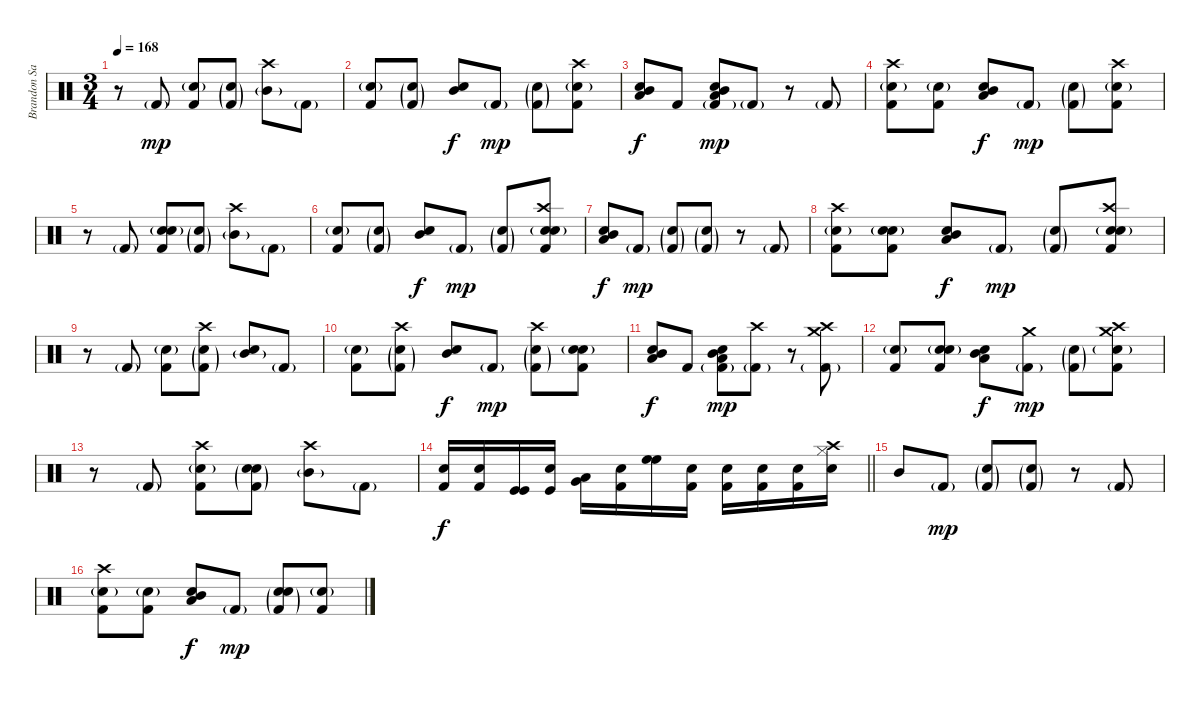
\track ("Brandon Saller" "Brandon Sa") {instrument percussion}
\staff {score}
\articulation defaults
\ts (3 4)
\tempo 168
\clef neutral
\ks c
r.8{dy mp} "Kick (hit) 2"{g}.8 ("Snare (hit)"{g} "Kick (hit) 2").8 ("Snare (hit)"{g} "Kick (hit) 2"{g}).8 ("Crash high (hit)" "Mid Tom (hit)"{g}).8 "Kick (hit) 2"{g}.8 |
("Snare (hit)"{g} "Kick (hit) 2").8 ("Snare (hit)"{g} "Kick (hit) 2"{g}).8 ("Snare (hit) 2" "Mid Tom (hit)").8{dy f} "Kick (hit) 2"{g}.8{dy mp} ("Snare (hit)"{g} "Kick (hit) 2"{g}).8 ("Crash high (hit)" "Snare (hit)"{g} "Kick (hit) 2").8 |
("Snare (hit) 2" "Low Tom (hit)" "Mid Tom (hit)").8{dy f} "Kick (hit) 2".8 ("Snare (hit) 2" "Low Tom (hit)" "Mid Tom (hit)" "Kick (hit) 2"{g}).8{dy mp} "Kick (hit) 2"{g}.8 r.8 "Kick (hit) 2"{g}.8 |
("Crash high (hit)" "Snare (hit)"{g} "Kick (hit) 2").8 ("Snare (hit)"{g} "Kick (hit) 2").8 ("Snare (hit) 2" "Low Tom (hit)" "Mid Tom (hit)").8{dy f} "Kick (hit) 2"{g}.8{dy mp} ("Snare (hit)"{g} "Kick (hit) 2"{g}).8 ("Crash high (hit)" "Snare (hit)"{g} "Kick (hit) 2").8 |
r.8 "Kick (hit) 2"{g}.8 ("Electric Snare (hit)" "Snare (hit)"{g} "Kick (hit) 2").8 ("Snare (hit)"{g} "Kick (hit) 2"{g}).8 ("Crash high (hit)" "Mid Tom (hit)"{g}).8 "Kick (hit) 2"{g}.8 |
("Snare (hit)"{g} "Kick (hit) 2").8 ("Snare (hit)"{g} "Kick (hit) 2"{g}).8 ("Snare (hit) 2" "Mid Tom (hit)").8{dy f} "Kick (hit) 2"{g}.8{dy mp} ("Snare (hit)"{g} "Kick (hit) 2"{g}).8 ("Crash high (hit)" "Electric Snare (hit)" "Snare (hit)"{g} "Kick (hit) 2").8 |
("Snare (hit) 2" "Low Tom (hit)" "Mid Tom (hit)").8{dy f} "Kick (hit) 2"{g}.8{dy mp} ("Snare (hit)"{g} "Kick (hit) 2"{g}).8 ("Snare (hit)"{g} "Kick (hit) 2"{g}).8 r.8 "Kick (hit) 2"{g}.8 |
("Crash high (hit)" "Snare (hit)"{g} "Kick (hit) 2").8 ("Electric Snare (hit)" "Snare (hit)"{g} "Kick (hit) 2").8 ("Snare (hit) 2" "Low Tom (hit)" "Mid Tom (hit)").8{dy f} "Kick (hit) 2"{g}.8{dy mp} ("Snare (hit)"{g} "Kick (hit) 2"{g}).8 ("Crash high (hit)" "Electric Snare (hit)" "Snare (hit)"{g} "Kick (hit) 2").8 |
r.8 "Kick (hit) 2"{g}.8 ("Snare (hit)"{g} "Kick (hit) 2").8 ("Crash high (hit)" "Snare (hit)"{g} "Kick (hit) 2"{g}).8 ("Electric Snare (hit)" "Mid Tom (hit)"{g}).8 "Kick (hit) 2"{g}.8 |
("Snare (hit)"{g} "Kick (hit) 2").8 ("Crash high (hit)" "Snare (hit)"{g} "Kick (hit) 2"{g}).8 ("Snare (hit) 2" "Mid Tom (hit)").8{dy f} "Kick (hit) 2"{g}.8{dy mp} ("Crash high (hit)" "Snare (hit)"{g} "Kick (hit) 2"{g}).8 ("Electric Snare (hit)" "Snare (hit)"{g} "Kick (hit) 2").8 |
("Snare (hit) 2" "Low Tom (hit)" "Mid Tom (hit)").8{dy f} "Kick (hit) 2".8 ("Snare (hit) 2" "Low Tom (hit)" "Mid Tom (hit)" "Kick (hit) 2"{g}).8{dy mp} ("Crash high (hit)" "Kick (hit) 2"{g}).8 r.8 ("Crash high (hit)" "Crash medium (hit)" "Kick (hit) 2"{g}).8 |
("Snare (hit)"{g} "Kick (hit) 2").8 ("Electric Snare (hit)" "Snare (hit)"{g} "Kick (hit) 2").8 ("Snare (hit) 2" "Low Tom (hit)" "Mid Tom (hit)").8{dy f} ("Crash medium (hit)" "Kick (hit) 2"{g}).8{dy mp} ("Snare (hit)"{g} "Kick (hit) 2"{g}).8 ("Crash high (hit)" "Crash medium (hit)" "Snare (hit)"{g} "Kick (hit) 2").8 |
r.8 "Kick (hit) 2"{g}.8 ("Crash high (hit)" "Snare (hit)"{g} "Kick (hit) 2").8 ("Electric Snare (hit)" "Snare (hit)"{g} "Kick (hit) 2"{g}).8 ("Crash high (hit)" "Mid Tom (hit)"{g}).8 "Kick (hit) 2"{g}.8 |
\barLineRight lightlight
("Snare (hit) 2" "Kick (hit) 2").16{dy f} ("Snare (hit) 2" "Kick (hit) 2").16 ("Kick (hit)" "Kick (hit)").16 ("Snare (hit) 2" "Kick (hit)").16 ("Low Tom (hit)" "Very Low Tom (hit)").16 ("Snare (hit)" "Kick (hit) 2").16 ("High Floor Tom (hit)" "High Floor Tom (hit)").16 ("Snare (hit) 2" "Kick (hit) 2").16 ("Snare (hit) 2" "Kick (hit) 2").16 ("Snare (hit) 2" "Kick (hit) 2").16 ("Snare (hit) 2" "Kick (hit) 2").16 ("Crash high (hit)" "Hi-Hat (closed)" "Snare (hit) 2").16 |
"Mid Tom (hit)".8 "Kick (hit) 2"{g}.8{dy mp} ("Snare (hit)"{g} "Kick (hit) 2"{g}).8 ("Snare (hit)"{g} "Kick (hit) 2"{g}).8 r.8 "Kick (hit) 2"{g}.8 |
("Crash high (hit)" "Snare (hit)"{g} "Kick (hit) 2").8 ("Snare (hit)"{g} "Kick (hit) 2").8 ("Snare (hit) 2" "Low Tom (hit)" "Mid Tom (hit)").8{dy f} "Kick (hit) 2"{g}.8{dy mp} ("Electric Snare (hit)" "Snare (hit)"{g} "Kick (hit) 2"{g}).8 ("Snare (hit)"{g} "Kick (hit) 2").8
